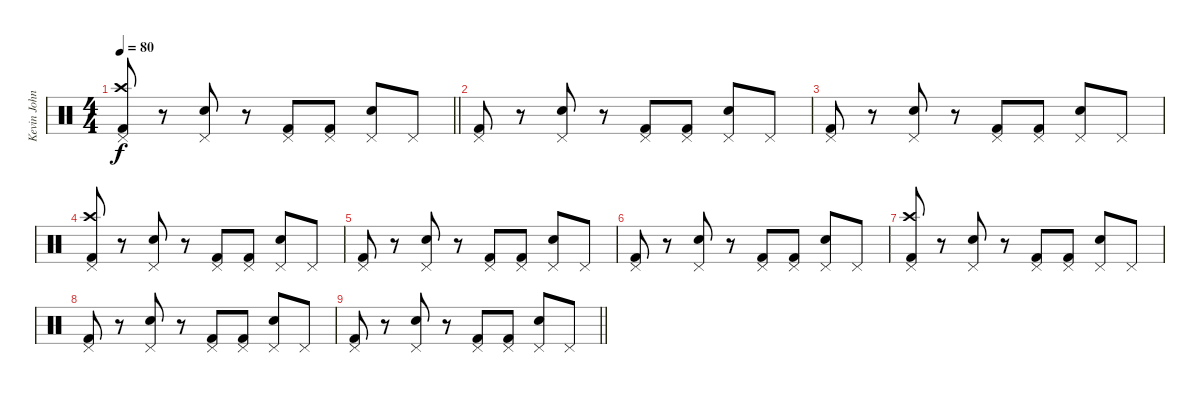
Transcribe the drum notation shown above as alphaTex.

\track ("Kevin John Grace" "Kevin John") {instrument percussion}
\staff {score}
\articulation defaults
\ts (4 4)
\tempo 80
\clef neutral
\barLineRight lightlight
\ks c
("Pedal Hi-Hat (hit)" "Crash high (hit)" "Kick (hit) 2").8{dy f} r.8 ("Pedal Hi-Hat (hit)" "Snare (hit) 2").8 r.8 ("Pedal Hi-Hat (hit)" "Kick (hit) 2").8 ("Pedal Hi-Hat (hit)" "Kick (hit) 2").8 ("Pedal Hi-Hat (hit)" "Snare (hit) 2").8 "Pedal Hi-Hat (hit)".8 |
("Pedal Hi-Hat (hit)" "Kick (hit) 2").8 r.8 ("Pedal Hi-Hat (hit)" "Snare (hit) 2").8 r.8 ("Pedal Hi-Hat (hit)" "Kick (hit) 2").8 ("Pedal Hi-Hat (hit)" "Kick (hit) 2").8 ("Pedal Hi-Hat (hit)" "Snare (hit) 2").8 "Pedal Hi-Hat (hit)".8 |
("Pedal Hi-Hat (hit)" "Kick (hit) 2").8 r.8 ("Pedal Hi-Hat (hit)" "Snare (hit) 2").8 r.8 ("Pedal Hi-Hat (hit)" "Kick (hit) 2").8 ("Pedal Hi-Hat (hit)" "Kick (hit) 2").8 ("Pedal Hi-Hat (hit)" "Snare (hit) 2").8 "Pedal Hi-Hat (hit)".8 |
("Pedal Hi-Hat (hit)" "Crash high (hit)" "Kick (hit) 2").8 r.8 ("Pedal Hi-Hat (hit)" "Snare (hit) 2").8 r.8 ("Pedal Hi-Hat (hit)" "Kick (hit) 2").8 ("Pedal Hi-Hat (hit)" "Kick (hit) 2").8 ("Pedal Hi-Hat (hit)" "Snare (hit) 2").8 "Pedal Hi-Hat (hit)".8 |
("Pedal Hi-Hat (hit)" "Kick (hit) 2").8 r.8 ("Pedal Hi-Hat (hit)" "Snare (hit) 2").8 r.8 ("Pedal Hi-Hat (hit)" "Kick (hit) 2").8 ("Pedal Hi-Hat (hit)" "Kick (hit) 2").8 ("Pedal Hi-Hat (hit)" "Snare (hit) 2").8 "Pedal Hi-Hat (hit)".8 |
("Pedal Hi-Hat (hit)" "Kick (hit) 2").8 r.8 ("Pedal Hi-Hat (hit)" "Snare (hit) 2").8 r.8 ("Pedal Hi-Hat (hit)" "Kick (hit) 2").8 ("Pedal Hi-Hat (hit)" "Kick (hit) 2").8 ("Pedal Hi-Hat (hit)" "Snare (hit) 2").8 "Pedal Hi-Hat (hit)".8 |
("Pedal Hi-Hat (hit)" "Crash high (hit)" "Kick (hit) 2").8 r.8 ("Pedal Hi-Hat (hit)" "Snare (hit) 2").8 r.8 ("Pedal Hi-Hat (hit)" "Kick (hit) 2").8 ("Pedal Hi-Hat (hit)" "Kick (hit) 2").8 ("Pedal Hi-Hat (hit)" "Snare (hit) 2").8 "Pedal Hi-Hat (hit)".8 |
("Pedal Hi-Hat (hit)" "Kick (hit) 2").8 r.8 ("Pedal Hi-Hat (hit)" "Snare (hit) 2").8 r.8 ("Pedal Hi-Hat (hit)" "Kick (hit) 2").8 ("Pedal Hi-Hat (hit)" "Kick (hit) 2").8 ("Pedal Hi-Hat (hit)" "Snare (hit) 2").8 "Pedal Hi-Hat (hit)".8 |
\barLineRight lightlight
("Pedal Hi-Hat (hit)" "Kick (hit) 2").8 r.8 ("Pedal Hi-Hat (hit)" "Snare (hit) 2").8 r.8 ("Pedal Hi-Hat (hit)" "Kick (hit) 2").8 ("Pedal Hi-Hat (hit)" "Kick (hit) 2").8 ("Pedal Hi-Hat (hit)" "Snare (hit) 2").8 "Pedal Hi-Hat (hit)".8
